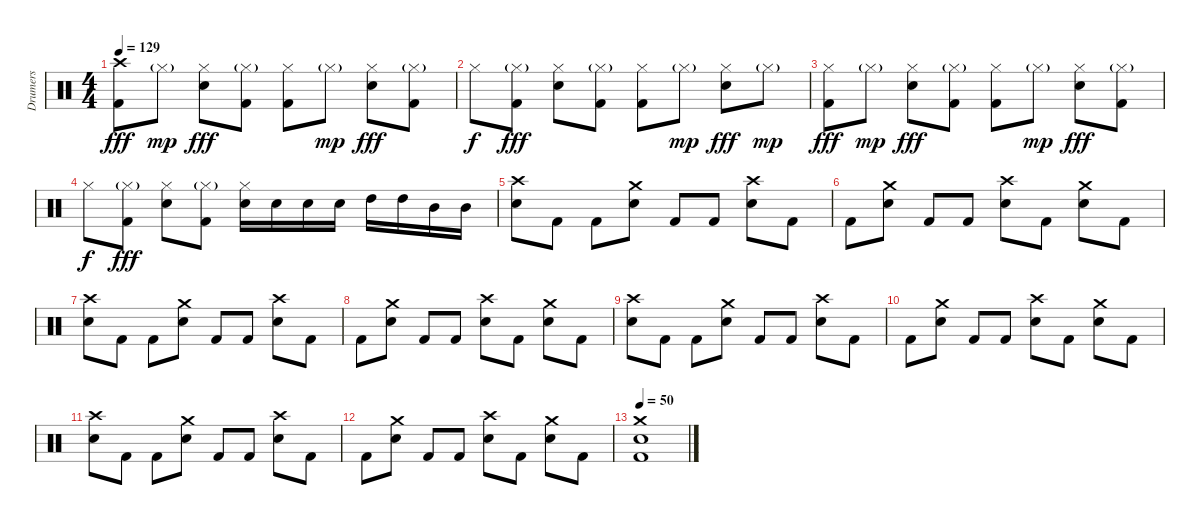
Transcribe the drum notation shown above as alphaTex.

\track ("Drumers" "Drumers") {instrument percussion}
\staff {score}
\articulation defaults
\ts (4 4)
\tempo 129
\clef neutral
\ks c
("Crash high (hit)" "Kick (hit) 2").8{dy fff} "Hi-Hat (closed)"{g}.8{dy mp} ("Hi-Hat (closed)" "Electric Snare (hit)").8{dy fff} ("Hi-Hat (closed)"{g} "Kick (hit) 2").8 ("Hi-Hat (closed)" "Kick (hit) 2").8 "Hi-Hat (closed)"{g}.8{dy mp} ("Hi-Hat (closed)" "Electric Snare (hit)").8{dy fff} ("Hi-Hat (closed)"{g} "Kick (hit) 2").8 |
"Hi-Hat (closed)".8{dy f} ("Hi-Hat (closed)"{g} "Kick (hit) 2").8{dy fff} ("Hi-Hat (closed)" "Electric Snare (hit)").8 ("Hi-Hat (closed)"{g} "Kick (hit) 2").8 ("Hi-Hat (closed)" "Kick (hit) 2").8 "Hi-Hat (closed)"{g}.8{dy mp} ("Hi-Hat (closed)" "Electric Snare (hit)").8{dy fff} "Hi-Hat (closed)"{g}.8{dy mp} |
("Hi-Hat (closed)" "Kick (hit) 2").8{dy fff} "Hi-Hat (closed)"{g}.8{dy mp} ("Hi-Hat (closed)" "Electric Snare (hit)").8{dy fff} ("Hi-Hat (closed)"{g} "Kick (hit) 2").8 ("Hi-Hat (closed)" "Kick (hit) 2").8 "Hi-Hat (closed)"{g}.8{dy mp} ("Hi-Hat (closed)" "Electric Snare (hit)").8{dy fff} ("Hi-Hat (closed)"{g} "Kick (hit) 2").8 |
"Hi-Hat (closed)".8{dy f} ("Hi-Hat (closed)"{g} "Kick (hit) 2").8{dy fff} ("Hi-Hat (closed)" "Electric Snare (hit)").8 ("Hi-Hat (closed)"{g} "Kick (hit) 2").8 ("Hi-Hat (closed)" "Electric Snare (hit)").16 "Electric Snare (hit)".16 "Electric Snare (hit)".16 "Electric Snare (hit)".16 "High Tom (hit)".16 "High Tom (hit)".16 "Mid Tom (hit)".16 "Mid Tom (hit)".16 |
("Crash high (hit)" "Electric Snare (hit)").8 "Kick (hit) 2".8 "Kick (hit) 2".8 ("Crash medium (hit)" "Electric Snare (hit)").8 "Kick (hit) 2".8 "Kick (hit) 2".8 ("Crash high (hit)" "Electric Snare (hit)").8 "Kick (hit) 2".8 |
"Kick (hit) 2".8 ("Crash medium (hit)" "Electric Snare (hit)").8 "Kick (hit) 2".8 "Kick (hit) 2".8 ("Crash high (hit)" "Electric Snare (hit)").8 "Kick (hit) 2".8 ("Crash medium (hit)" "Electric Snare (hit)").8 "Kick (hit) 2".8 |
("Crash high (hit)" "Electric Snare (hit)").8 "Kick (hit) 2".8 "Kick (hit) 2".8 ("Crash medium (hit)" "Electric Snare (hit)").8 "Kick (hit) 2".8 "Kick (hit) 2".8 ("Crash high (hit)" "Electric Snare (hit)").8 "Kick (hit) 2".8 |
"Kick (hit) 2".8 ("Crash medium (hit)" "Electric Snare (hit)").8 "Kick (hit) 2".8 "Kick (hit) 2".8 ("Crash high (hit)" "Electric Snare (hit)").8 "Kick (hit) 2".8 ("Crash medium (hit)" "Electric Snare (hit)").8 "Kick (hit) 2".8 |
("Crash high (hit)" "Electric Snare (hit)").8 "Kick (hit) 2".8 "Kick (hit) 2".8 ("Crash medium (hit)" "Electric Snare (hit)").8 "Kick (hit) 2".8 "Kick (hit) 2".8 ("Crash high (hit)" "Electric Snare (hit)").8 "Kick (hit) 2".8 |
"Kick (hit) 2".8 ("Crash medium (hit)" "Electric Snare (hit)").8 "Kick (hit) 2".8 "Kick (hit) 2".8 ("Crash high (hit)" "Electric Snare (hit)").8 "Kick (hit) 2".8 ("Crash medium (hit)" "Electric Snare (hit)").8 "Kick (hit) 2".8 |
("Crash high (hit)" "Electric Snare (hit)").8 "Kick (hit) 2".8 "Kick (hit) 2".8 ("Crash medium (hit)" "Electric Snare (hit)").8 "Kick (hit) 2".8 "Kick (hit) 2".8 ("Crash high (hit)" "Electric Snare (hit)").8 "Kick (hit) 2".8 |
"Kick (hit) 2".8 ("Crash medium (hit)" "Electric Snare (hit)").8 "Kick (hit) 2".8 "Kick (hit) 2".8 ("Crash high (hit)" "Electric Snare (hit)").8 "Kick (hit) 2".8 ("Crash medium (hit)" "Electric Snare (hit)").8 "Kick (hit) 2".8 |
\tempo 50
("Crash medium (hit)" "Electric Snare (hit)" "Kick (hit) 2").1
